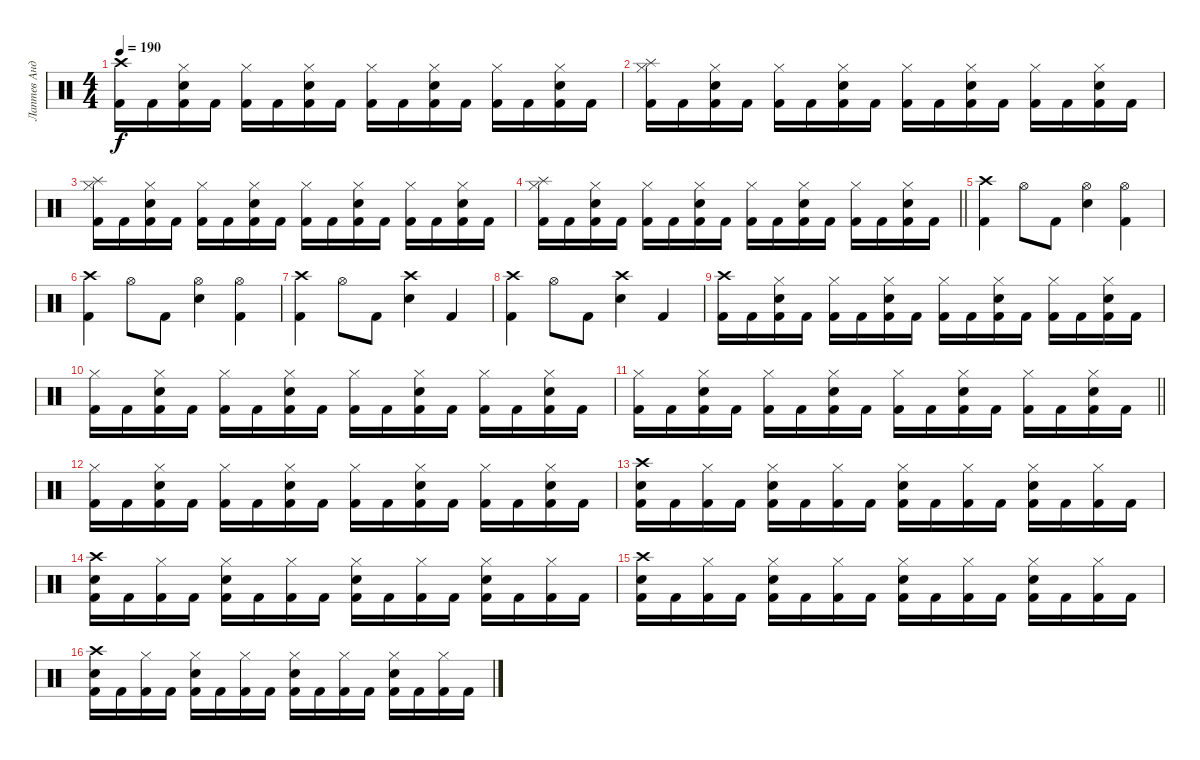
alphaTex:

\track ("Лаптев Андрей" "Лаптев Анд") {instrument percussion}
\staff {score}
\articulation defaults
\ts (4 4)
\tempo 190
\clef neutral
\ks c
("Crash high (hit)" "Kick (hit) 2").16{dy f} "Kick (hit) 2".16 ("Hi-Hat (closed)" "Electric Snare (hit)" "Kick (hit) 2").16 "Kick (hit) 2".16 ("Hi-Hat (closed)" "Kick (hit) 2").16 "Kick (hit) 2".16 ("Hi-Hat (closed)" "Electric Snare (hit)" "Kick (hit) 2").16 "Kick (hit) 2".16 ("Hi-Hat (closed)" "Kick (hit) 2").16 "Kick (hit) 2".16 ("Electric Snare (hit)" "Hi-Hat (closed)" "Kick (hit) 2").16 "Kick (hit) 2".16 ("Hi-Hat (closed)" "Kick (hit) 2").16 "Kick (hit) 2".16 ("Hi-Hat (closed)" "Electric Snare (hit)" "Kick (hit) 2").16 "Kick (hit) 2".16 |
("Splash (hit)" "Hi-Hat (closed)" "Kick (hit) 2").16 "Kick (hit) 2".16 ("Hi-Hat (closed)" "Electric Snare (hit)" "Kick (hit) 2").16 "Kick (hit) 2".16 ("Hi-Hat (closed)" "Kick (hit) 2").16 "Kick (hit) 2".16 ("Hi-Hat (closed)" "Electric Snare (hit)" "Kick (hit) 2").16 "Kick (hit) 2".16 ("Hi-Hat (closed)" "Kick (hit) 2").16 "Kick (hit) 2".16 ("Electric Snare (hit)" "Hi-Hat (closed)" "Kick (hit) 2").16 "Kick (hit) 2".16 ("Hi-Hat (closed)" "Kick (hit) 2").16 "Kick (hit) 2".16 ("Hi-Hat (closed)" "Electric Snare (hit)" "Kick (hit) 2").16 "Kick (hit) 2".16 |
("Hi-Hat (closed)" "Splash (hit)" "Kick (hit) 2").16 "Kick (hit) 2".16 ("Hi-Hat (closed)" "Electric Snare (hit)" "Kick (hit) 2").16 "Kick (hit) 2".16 ("Hi-Hat (closed)" "Kick (hit) 2").16 "Kick (hit) 2".16 ("Hi-Hat (closed)" "Electric Snare (hit)" "Kick (hit) 2").16 "Kick (hit) 2".16 ("Hi-Hat (closed)" "Kick (hit) 2").16 "Kick (hit) 2".16 ("Hi-Hat (closed)" "Electric Snare (hit)" "Kick (hit) 2").16 "Kick (hit) 2".16 ("Hi-Hat (closed)" "Kick (hit) 2").16 "Kick (hit) 2".16 ("Hi-Hat (closed)" "Electric Snare (hit)" "Kick (hit) 2").16 "Kick (hit) 2".16 |
\barLineRight lightlight
("Splash (hit)" "Hi-Hat (closed)" "Kick (hit) 2").16 "Kick (hit) 2".16 ("Hi-Hat (closed)" "Electric Snare (hit)" "Kick (hit) 2").16 "Kick (hit) 2".16 ("Hi-Hat (closed)" "Kick (hit) 2").16 "Kick (hit) 2".16 ("Hi-Hat (closed)" "Electric Snare (hit)" "Kick (hit) 2").16 "Kick (hit) 2".16 ("Hi-Hat (closed)" "Kick (hit) 2").16 "Kick (hit) 2".16 ("Hi-Hat (closed)" "Electric Snare (hit)" "Kick (hit) 2").16 "Kick (hit) 2".16 ("Hi-Hat (closed)" "Kick (hit) 2").16 "Kick (hit) 2".16 ("Hi-Hat (closed)" "Electric Snare (hit)" "Kick (hit) 2").16 "Kick (hit) 2".16 |
("Crash high (hit)" "Kick (hit) 2").4 "Hi-Hat (open)".8 "Kick (hit) 2".8 ("Snare (hit) 2" "Hi-Hat (open)").4 ("Hi-Hat (open)" "Kick (hit) 2").4 |
("Crash high (hit)" "Kick (hit) 2").4 "Hi-Hat (open)".8 "Kick (hit) 2".8 ("Snare (hit) 2" "Hi-Hat (open)").4 ("Hi-Hat (open)" "Kick (hit) 2").4 |
("Crash high (hit)" "Kick (hit) 2").4 "Hi-Hat (open)".8 "Kick (hit) 2".8 ("Snare (hit) 2" "Crash high (hit)").4 "Kick (hit) 2".4 |
("Crash high (hit)" "Kick (hit) 2").4 "Hi-Hat (open)".8 "Kick (hit) 2".8 ("Snare (hit) 2" "Crash high (hit)").4 "Kick (hit) 2".4 |
("Crash high (hit)" "Kick (hit) 2").16 "Kick (hit) 2".16 ("Hi-Hat (closed)" "Electric Snare (hit)" "Kick (hit) 2").16 "Kick (hit) 2".16 ("Hi-Hat (closed)" "Kick (hit) 2").16 "Kick (hit) 2".16 ("Electric Snare (hit)" "Hi-Hat (closed)" "Kick (hit) 2").16 "Kick (hit) 2".16 ("Hi-Hat (closed)" "Kick (hit) 2").16 "Kick (hit) 2".16 ("Electric Snare (hit)" "Hi-Hat (closed)" "Kick (hit) 2").16 "Kick (hit) 2".16 ("Hi-Hat (closed)" "Kick (hit) 2").16 "Kick (hit) 2".16 ("Electric Snare (hit)" "Hi-Hat (closed)" "Kick (hit) 2").16 "Kick (hit) 2".16 |
("Hi-Hat (closed)" "Kick (hit) 2").16 "Kick (hit) 2".16 ("Electric Snare (hit)" "Hi-Hat (closed)" "Kick (hit) 2").16 "Kick (hit) 2".16 ("Hi-Hat (closed)" "Kick (hit) 2").16 "Kick (hit) 2".16 ("Hi-Hat (closed)" "Electric Snare (hit)" "Kick (hit) 2").16 "Kick (hit) 2".16 ("Hi-Hat (closed)" "Kick (hit) 2").16 "Kick (hit) 2".16 ("Electric Snare (hit)" "Hi-Hat (closed)" "Kick (hit) 2").16 "Kick (hit) 2".16 ("Hi-Hat (closed)" "Kick (hit) 2").16 "Kick (hit) 2".16 ("Electric Snare (hit)" "Hi-Hat (closed)" "Kick (hit) 2").16 "Kick (hit) 2".16 |
\barLineRight lightlight
("Hi-Hat (closed)" "Kick (hit) 2").16 "Kick (hit) 2".16 ("Electric Snare (hit)" "Hi-Hat (closed)" "Kick (hit) 2").16 "Kick (hit) 2".16 ("Hi-Hat (closed)" "Kick (hit) 2").16 "Kick (hit) 2".16 ("Electric Snare (hit)" "Hi-Hat (closed)" "Kick (hit) 2").16 "Kick (hit) 2".16 ("Hi-Hat (closed)" "Kick (hit) 2").16 "Kick (hit) 2".16 ("Electric Snare (hit)" "Hi-Hat (closed)" "Kick (hit) 2").16 "Kick (hit) 2".16 ("Hi-Hat (closed)" "Kick (hit) 2").16 "Kick (hit) 2".16 ("Electric Snare (hit)" "Hi-Hat (closed)" "Kick (hit) 2").16 "Kick (hit) 2".16 |
("Hi-Hat (closed)" "Kick (hit) 2").16 "Kick (hit) 2".16 ("Electric Snare (hit)" "Hi-Hat (closed)" "Kick (hit) 2").16 "Kick (hit) 2".16 ("Hi-Hat (closed)" "Kick (hit) 2").16 "Kick (hit) 2".16 ("Electric Snare (hit)" "Hi-Hat (closed)" "Kick (hit) 2").16 "Kick (hit) 2".16 ("Hi-Hat (closed)" "Kick (hit) 2").16 "Kick (hit) 2".16 ("Electric Snare (hit)" "Hi-Hat (closed)" "Kick (hit) 2").16 "Kick (hit) 2".16 ("Hi-Hat (closed)" "Kick (hit) 2").16 "Kick (hit) 2".16 ("Hi-Hat (closed)" "Electric Snare (hit)" "Kick (hit) 2").16 "Kick (hit) 2".16 |
("Crash high (hit)" "Electric Snare (hit)" "Kick (hit) 2").16 "Kick (hit) 2".16 ("Hi-Hat (closed)" "Kick (hit) 2").16 "Kick (hit) 2".16 ("Hi-Hat (closed)" "Electric Snare (hit)" "Kick (hit) 2").16 "Kick (hit) 2".16 ("Hi-Hat (closed)" "Kick (hit) 2").16 "Kick (hit) 2".16 ("Hi-Hat (closed)" "Electric Snare (hit)" "Kick (hit) 2").16 "Kick (hit) 2".16 ("Hi-Hat (closed)" "Kick (hit) 2").16 "Kick (hit) 2".16 ("Hi-Hat (closed)" "Electric Snare (hit)" "Kick (hit) 2").16 "Kick (hit) 2".16 ("Hi-Hat (closed)" "Kick (hit) 2").16 "Kick (hit) 2".16 |
("Electric Snare (hit)" "Crash high (hit)" "Kick (hit) 2").16 "Kick (hit) 2".16 ("Hi-Hat (closed)" "Kick (hit) 2").16 "Kick (hit) 2".16 ("Electric Snare (hit)" "Hi-Hat (closed)" "Kick (hit) 2").16 "Kick (hit) 2".16 ("Hi-Hat (closed)" "Kick (hit) 2").16 "Kick (hit) 2".16 ("Electric Snare (hit)" "Hi-Hat (closed)" "Kick (hit) 2").16 "Kick (hit) 2".16 ("Hi-Hat (closed)" "Kick (hit) 2").16 "Kick (hit) 2".16 ("Electric Snare (hit)" "Hi-Hat (closed)" "Kick (hit) 2").16 "Kick (hit) 2".16 ("Hi-Hat (closed)" "Kick (hit) 2").16 "Kick (hit) 2".16 |
("Electric Snare (hit)" "Crash high (hit)" "Kick (hit) 2").16 "Kick (hit) 2".16 ("Hi-Hat (closed)" "Kick (hit) 2").16 "Kick (hit) 2".16 ("Electric Snare (hit)" "Hi-Hat (closed)" "Kick (hit) 2").16 "Kick (hit) 2".16 ("Hi-Hat (closed)" "Kick (hit) 2").16 "Kick (hit) 2".16 ("Electric Snare (hit)" "Hi-Hat (closed)" "Kick (hit) 2").16 "Kick (hit) 2".16 ("Hi-Hat (closed)" "Kick (hit) 2").16 "Kick (hit) 2".16 ("Electric Snare (hit)" "Hi-Hat (closed)" "Kick (hit) 2").16 "Kick (hit) 2".16 ("Hi-Hat (closed)" "Kick (hit) 2").16 "Kick (hit) 2".16 |
("Crash high (hit)" "Electric Snare (hit)" "Kick (hit) 2").16 "Kick (hit) 2".16 ("Hi-Hat (closed)" "Kick (hit) 2").16 "Kick (hit) 2".16 ("Electric Snare (hit)" "Hi-Hat (closed)" "Kick (hit) 2").16 "Kick (hit) 2".16 ("Hi-Hat (closed)" "Kick (hit) 2").16 "Kick (hit) 2".16 ("Hi-Hat (closed)" "Electric Snare (hit)" "Kick (hit) 2").16 "Kick (hit) 2".16 ("Hi-Hat (closed)" "Kick (hit) 2").16 "Kick (hit) 2".16 ("Electric Snare (hit)" "Hi-Hat (closed)" "Kick (hit) 2").16 "Kick (hit) 2".16 ("Hi-Hat (closed)" "Kick (hit) 2").16 "Kick (hit) 2".16
